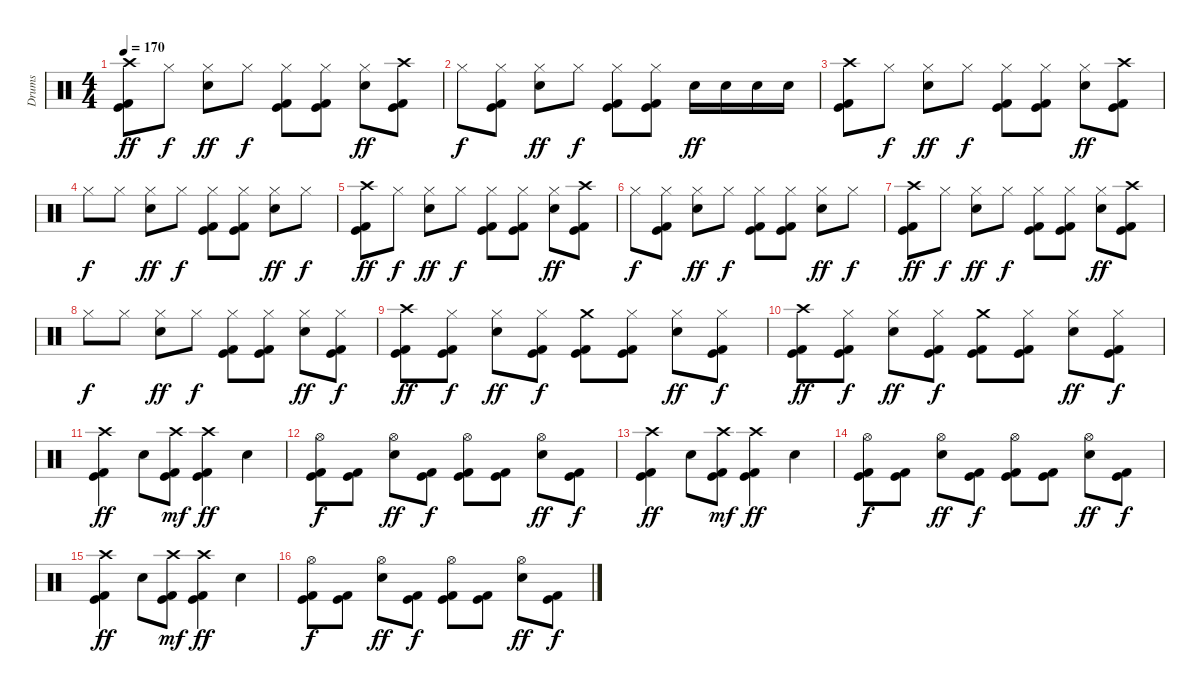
\track ("Drums" "Drums") {instrument percussion}
\staff {score}
\articulation defaults
\ts (4 4)
\tempo 170
\clef neutral
\ks c
("Crash high (hit)" "Kick (hit)" "Kick (hit) 2").8{dy ff} "Hi-Hat (closed)".8{dy f} ("Hi-Hat (closed)" "Snare (hit) 2").8{dy ff} "Hi-Hat (closed)".8{dy f} ("Hi-Hat (closed)" "Kick (hit)" "Kick (hit) 2").8 ("Hi-Hat (closed)" "Kick (hit)" "Kick (hit) 2").8 ("Hi-Hat (closed)" "Snare (hit) 2").8{dy ff} ("Crash high (hit)" "Kick (hit)" "Kick (hit) 2").8 |
"Hi-Hat (closed)".8{dy f} ("Hi-Hat (closed)" "Kick (hit)" "Kick (hit) 2").8 ("Hi-Hat (closed)" "Snare (hit) 2").8{dy ff} "Hi-Hat (closed)".8{dy f} ("Hi-Hat (closed)" "Kick (hit)" "Kick (hit) 2").8 ("Hi-Hat (closed)" "Kick (hit)" "Kick (hit) 2").8 "Snare (hit) 2".16{dy ff} "Snare (hit) 2".16 "Snare (hit) 2".16 "Snare (hit) 2".16 |
("Crash high (hit)" "Kick (hit)" "Kick (hit) 2").8 "Hi-Hat (closed)".8{dy f} ("Hi-Hat (closed)" "Snare (hit) 2").8{dy ff} "Hi-Hat (closed)".8{dy f} ("Hi-Hat (closed)" "Kick (hit)" "Kick (hit) 2").8 ("Hi-Hat (closed)" "Kick (hit)" "Kick (hit) 2").8 ("Hi-Hat (closed)" "Snare (hit) 2").8{dy ff} ("Crash high (hit)" "Kick (hit)" "Kick (hit) 2").8 |
"Hi-Hat (closed)".8{dy f} "Hi-Hat (closed)".8 ("Hi-Hat (closed)" "Snare (hit) 2").8{dy ff} "Hi-Hat (closed)".8{dy f} ("Hi-Hat (closed)" "Kick (hit)" "Kick (hit) 2").8 ("Hi-Hat (closed)" "Kick (hit)" "Kick (hit) 2").8 ("Hi-Hat (closed)" "Snare (hit) 2").8{dy ff} "Hi-Hat (closed)".8{dy f} |
("Crash high (hit)" "Kick (hit)" "Kick (hit) 2").8{dy ff} "Hi-Hat (closed)".8{dy f} ("Hi-Hat (closed)" "Snare (hit) 2").8{dy ff} "Hi-Hat (closed)".8{dy f} ("Hi-Hat (closed)" "Kick (hit)" "Kick (hit) 2").8 ("Hi-Hat (closed)" "Kick (hit)" "Kick (hit) 2").8 ("Hi-Hat (closed)" "Snare (hit) 2").8{dy ff} ("Crash high (hit)" "Kick (hit)" "Kick (hit) 2").8 |
"Hi-Hat (closed)".8{dy f} ("Hi-Hat (closed)" "Kick (hit)" "Kick (hit) 2").8 ("Hi-Hat (closed)" "Snare (hit) 2").8{dy ff} "Hi-Hat (closed)".8{dy f} ("Hi-Hat (closed)" "Kick (hit)" "Kick (hit) 2").8 ("Hi-Hat (closed)" "Kick (hit)" "Kick (hit) 2").8 ("Hi-Hat (closed)" "Snare (hit) 2").8{dy ff} "Hi-Hat (closed)".8{dy f} |
("Crash high (hit)" "Kick (hit)" "Kick (hit) 2").8{dy ff} "Hi-Hat (closed)".8{dy f} ("Hi-Hat (closed)" "Snare (hit) 2").8{dy ff} "Hi-Hat (closed)".8{dy f} ("Hi-Hat (closed)" "Kick (hit)" "Kick (hit) 2").8 ("Hi-Hat (closed)" "Kick (hit)" "Kick (hit) 2").8 ("Hi-Hat (closed)" "Snare (hit) 2").8{dy ff} ("Crash high (hit)" "Kick (hit)" "Kick (hit) 2").8 |
"Hi-Hat (closed)".8{dy f} "Hi-Hat (closed)".8 ("Hi-Hat (closed)" "Snare (hit) 2").8{dy ff} "Hi-Hat (closed)".8{dy f} ("Hi-Hat (closed)" "Kick (hit)" "Kick (hit) 2").8 ("Hi-Hat (closed)" "Kick (hit)" "Kick (hit) 2").8 ("Hi-Hat (closed)" "Snare (hit) 2").8{dy ff} ("Hi-Hat (closed)" "Kick (hit)" "Kick (hit) 2").8{dy f} |
("Crash high (hit)" "Kick (hit)" "Kick (hit) 2").8{dy ff} ("Hi-Hat (closed)" "Kick (hit)" "Kick (hit) 2").8{dy f} ("Hi-Hat (closed)" "Snare (hit) 2").8{dy ff} ("Hi-Hat (closed)" "Kick (hit)" "Kick (hit) 2").8{dy f} ("Crash medium (hit)" "Kick (hit)" "Kick (hit) 2").8 ("Hi-Hat (closed)" "Kick (hit)" "Kick (hit) 2").8 ("Hi-Hat (closed)" "Snare (hit) 2").8{dy ff} ("Hi-Hat (closed)" "Kick (hit)" "Kick (hit) 2").8{dy f} |
("Crash high (hit)" "Kick (hit)" "Kick (hit) 2").8{dy ff} ("Hi-Hat (closed)" "Kick (hit)" "Kick (hit) 2").8{dy f} ("Hi-Hat (closed)" "Snare (hit) 2").8{dy ff} ("Hi-Hat (closed)" "Kick (hit)" "Kick (hit) 2").8{dy f} ("Crash medium (hit)" "Kick (hit)" "Kick (hit) 2").8 ("Hi-Hat (closed)" "Kick (hit)" "Kick (hit) 2").8 ("Hi-Hat (closed)" "Snare (hit) 2").8{dy ff} ("Hi-Hat (closed)" "Kick (hit)" "Kick (hit) 2").8{dy f} |
("Crash high (hit)" "Kick (hit)" "Kick (hit) 2").4{dy ff} "Snare (hit) 2".8 ("Crash high (hit)" "Kick (hit)" "Kick (hit) 2").8{dy mf} ("Crash high (hit)" "Kick (hit)" "Kick (hit) 2").4{dy ff} "Snare (hit) 2".4 |
("Hi-Hat (open)" "Kick (hit)" "Kick (hit) 2").8{dy f} ("Kick (hit)" "Kick (hit) 2").8 ("Hi-Hat (open)" "Snare (hit) 2").8{dy ff} ("Kick (hit)" "Kick (hit) 2").8{dy f} ("Hi-Hat (open)" "Kick (hit)" "Kick (hit) 2").8 ("Kick (hit)" "Kick (hit) 2").8 ("Hi-Hat (open)" "Snare (hit) 2").8{dy ff} ("Kick (hit)" "Kick (hit) 2").8{dy f} |
("Crash high (hit)" "Kick (hit)" "Kick (hit) 2").4{dy ff} "Snare (hit) 2".8 ("Crash high (hit)" "Kick (hit)" "Kick (hit) 2").8{dy mf} ("Crash high (hit)" "Kick (hit)" "Kick (hit) 2").4{dy ff} "Snare (hit) 2".4 |
("Hi-Hat (open)" "Kick (hit)" "Kick (hit) 2").8{dy f} ("Kick (hit)" "Kick (hit) 2").8 ("Hi-Hat (open)" "Snare (hit) 2").8{dy ff} ("Kick (hit)" "Kick (hit) 2").8{dy f} ("Hi-Hat (open)" "Kick (hit)" "Kick (hit) 2").8 ("Kick (hit)" "Kick (hit) 2").8 ("Hi-Hat (open)" "Snare (hit) 2").8{dy ff} ("Kick (hit)" "Kick (hit) 2").8{dy f} |
("Crash high (hit)" "Kick (hit)" "Kick (hit) 2").4{dy ff} "Snare (hit) 2".8 ("Crash high (hit)" "Kick (hit)" "Kick (hit) 2").8{dy mf} ("Crash high (hit)" "Kick (hit)" "Kick (hit) 2").4{dy ff} "Snare (hit) 2".4 |
("Hi-Hat (open)" "Kick (hit)" "Kick (hit) 2").8{dy f} ("Kick (hit)" "Kick (hit) 2").8 ("Hi-Hat (open)" "Snare (hit) 2").8{dy ff} ("Kick (hit)" "Kick (hit) 2").8{dy f} ("Hi-Hat (open)" "Kick (hit)" "Kick (hit) 2").8 ("Kick (hit)" "Kick (hit) 2").8 ("Hi-Hat (open)" "Snare (hit) 2").8{dy ff} ("Kick (hit)" "Kick (hit) 2").8{dy f}
